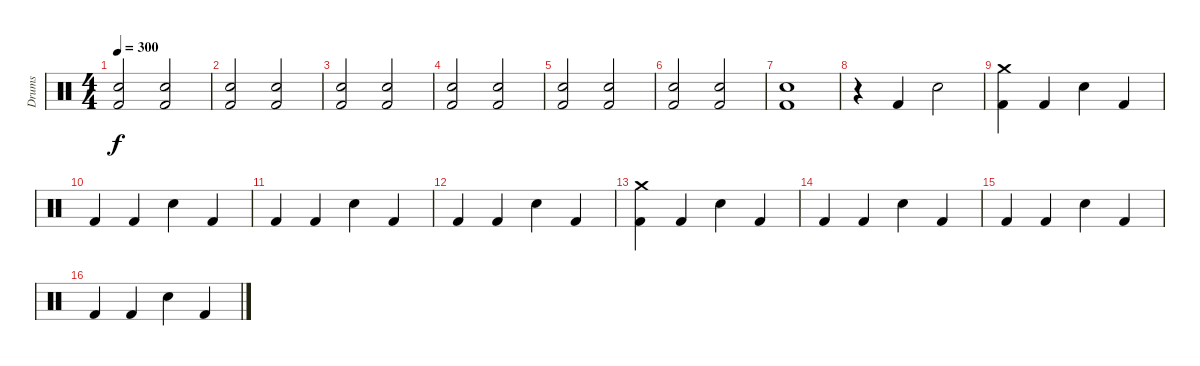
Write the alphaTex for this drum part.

\track ("Drums" "Drums") {instrument percussion}
\staff {score}
\articulation defaults
\ts (4 4)
\tempo 300
\clef neutral
\ks c
("Electric Snare (hit)" "Kick (hit) 2").2{dy f} ("Electric Snare (hit)" "Kick (hit) 2").2 |
("Electric Snare (hit)" "Kick (hit) 2").2 ("Electric Snare (hit)" "Kick (hit) 2").2 |
("Electric Snare (hit)" "Kick (hit) 2").2 ("Electric Snare (hit)" "Kick (hit) 2").2 |
("Electric Snare (hit)" "Kick (hit) 2").2 ("Electric Snare (hit)" "Kick (hit) 2").2 |
("Electric Snare (hit)" "Kick (hit) 2").2 ("Electric Snare (hit)" "Kick (hit) 2").2 |
("Electric Snare (hit)" "Kick (hit) 2").2 ("Electric Snare (hit)" "Kick (hit) 2").2 |
("Electric Snare (hit)" "Kick (hit) 2").1 |
r.4 "Kick (hit) 2".4 "Electric Snare (hit)".2 |
("Crash medium (hit)" "Kick (hit) 2").4 "Kick (hit) 2".4 "Snare (hit) 2".4 "Kick (hit) 2".4 |
"Kick (hit) 2".4 "Kick (hit) 2".4 "Snare (hit) 2".4 "Kick (hit) 2".4 |
"Kick (hit) 2".4 "Kick (hit) 2".4 "Snare (hit) 2".4 "Kick (hit) 2".4 |
"Kick (hit) 2".4 "Kick (hit) 2".4 "Snare (hit) 2".4 "Kick (hit) 2".4 |
("Crash medium (hit)" "Kick (hit) 2").4 "Kick (hit) 2".4 "Snare (hit) 2".4 "Kick (hit) 2".4 |
"Kick (hit) 2".4 "Kick (hit) 2".4 "Snare (hit) 2".4 "Kick (hit) 2".4 |
"Kick (hit) 2".4 "Kick (hit) 2".4 "Snare (hit) 2".4 "Kick (hit) 2".4 |
"Kick (hit) 2".4 "Kick (hit) 2".4 "Snare (hit) 2".4 "Kick (hit) 2".4
